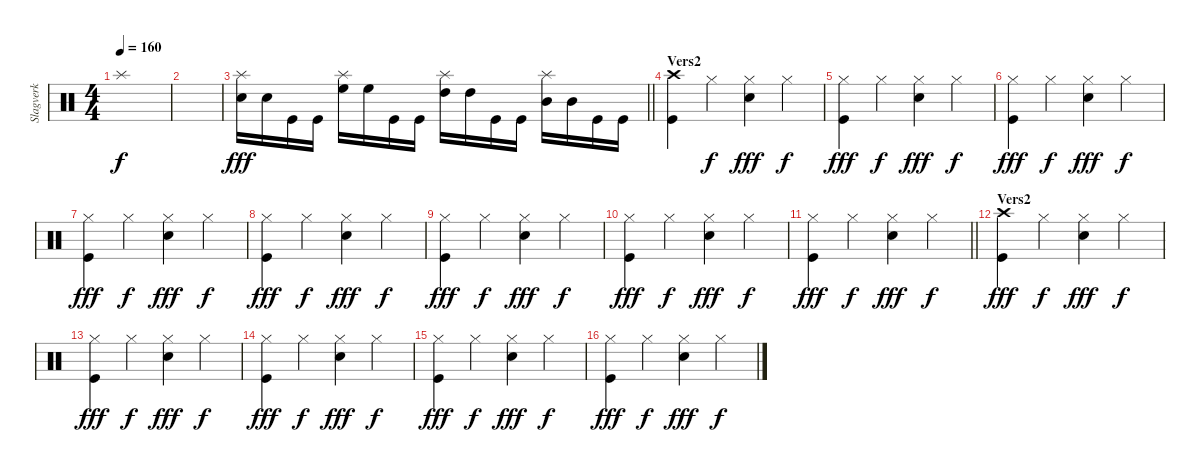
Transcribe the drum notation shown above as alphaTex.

\track ("Slagverk" "Slagverk") {instrument percussion}
\staff {score}
\articulation defaults
\ts (4 4)
\tempo 160
\clef neutral
\ks c "Splash (hit)".1{dy f}
|
|
\barLineRight lightlight
("Splash (hit)" "Electric Snare (hit)").16{dy fff} "Electric Snare (hit)".16 "Kick (hit)".16 "Kick (hit)".16 ("Splash (hit)" "High Floor Tom (hit)").16 "High Floor Tom (hit)".16 "Kick (hit)".16 "Kick (hit)".16 ("Splash (hit)" "High Tom (hit)").16 "High Tom (hit)".16 "Kick (hit)".16 "Kick (hit)".16 ("Splash (hit)" "Mid Tom (hit)").16 "Mid Tom (hit)".16 "Kick (hit)".16 "Kick (hit)".16 |
\section ("" "Vers2")
("Crash high (hit)" "Kick (hit)").4 "Hi-Hat (closed)".4{dy f} ("Hi-Hat (closed)" "Electric Snare (hit)").4{dy fff} "Hi-Hat (closed)".4{dy f} |
("Hi-Hat (closed)" "Kick (hit)").4{dy fff} "Hi-Hat (closed)".4{dy f} ("Hi-Hat (closed)" "Electric Snare (hit)").4{dy fff} "Hi-Hat (closed)".4{dy f} |
("Hi-Hat (closed)" "Kick (hit)").4{dy fff} "Hi-Hat (closed)".4{dy f} ("Hi-Hat (closed)" "Electric Snare (hit)").4{dy fff} "Hi-Hat (closed)".4{dy f} |
("Hi-Hat (closed)" "Kick (hit)").4{dy fff} "Hi-Hat (closed)".4{dy f} ("Hi-Hat (closed)" "Electric Snare (hit)").4{dy fff} "Hi-Hat (closed)".4{dy f} |
("Hi-Hat (closed)" "Kick (hit)").4{dy fff} "Hi-Hat (closed)".4{dy f} ("Hi-Hat (closed)" "Electric Snare (hit)").4{dy fff} "Hi-Hat (closed)".4{dy f} |
("Hi-Hat (closed)" "Kick (hit)").4{dy fff} "Hi-Hat (closed)".4{dy f} ("Hi-Hat (closed)" "Electric Snare (hit)").4{dy fff} "Hi-Hat (closed)".4{dy f} |
("Hi-Hat (closed)" "Kick (hit)").4{dy fff} "Hi-Hat (closed)".4{dy f} ("Hi-Hat (closed)" "Electric Snare (hit)").4{dy fff} "Hi-Hat (closed)".4{dy f} |
\barLineRight lightlight
("Hi-Hat (closed)" "Kick (hit)").4{dy fff} "Hi-Hat (closed)".4{dy f} ("Hi-Hat (closed)" "Electric Snare (hit)").4{dy fff} "Hi-Hat (closed)".4{dy f} |
\section ("" "Vers2")
("Crash high (hit)" "Kick (hit)").4{dy fff} "Hi-Hat (closed)".4{dy f} ("Hi-Hat (closed)" "Electric Snare (hit)").4{dy fff} "Hi-Hat (closed)".4{dy f} |
("Hi-Hat (closed)" "Kick (hit)").4{dy fff} "Hi-Hat (closed)".4{dy f} ("Hi-Hat (closed)" "Electric Snare (hit)").4{dy fff} "Hi-Hat (closed)".4{dy f} |
("Hi-Hat (closed)" "Kick (hit)").4{dy fff} "Hi-Hat (closed)".4{dy f} ("Hi-Hat (closed)" "Electric Snare (hit)").4{dy fff} "Hi-Hat (closed)".4{dy f} |
("Hi-Hat (closed)" "Kick (hit)").4{dy fff} "Hi-Hat (closed)".4{dy f} ("Hi-Hat (closed)" "Electric Snare (hit)").4{dy fff} "Hi-Hat (closed)".4{dy f} |
("Hi-Hat (closed)" "Kick (hit)").4{dy fff} "Hi-Hat (closed)".4{dy f} ("Hi-Hat (closed)" "Electric Snare (hit)").4{dy fff} "Hi-Hat (closed)".4{dy f}
